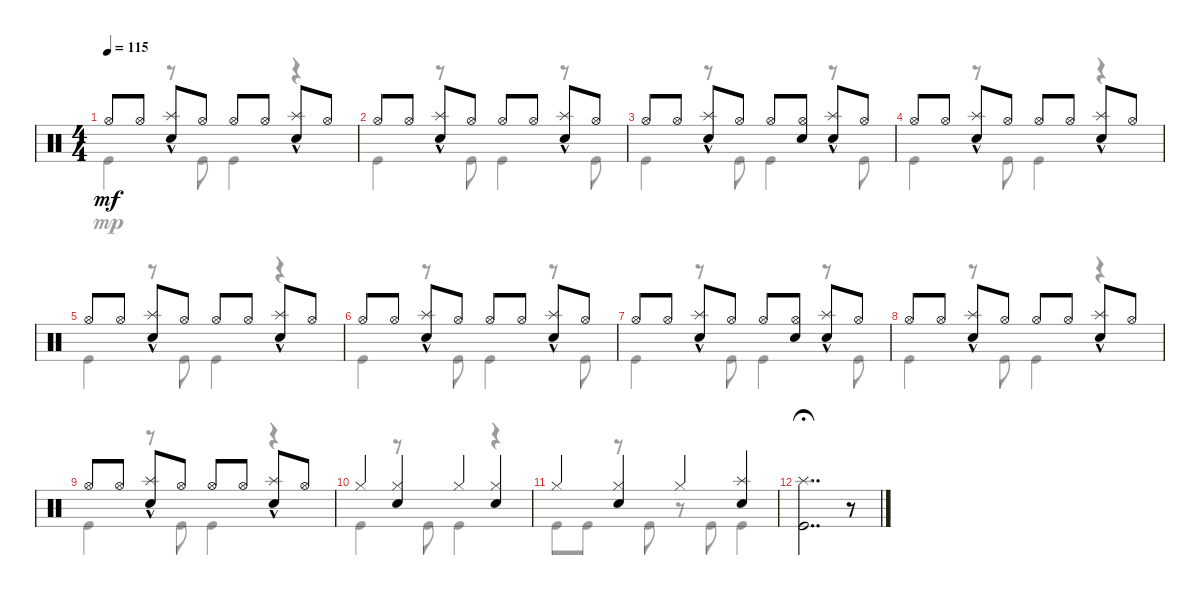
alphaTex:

\defaultSystemsLayout 4
\bracketExtendMode nobrackets
\singleTrackTrackNamePolicy hidden
\multiTrackTrackNamePolicy hidden
\firstSystemTrackNameOrientation horizontal
\otherSystemsTrackNameOrientation horizontal
\track ("Drums" "Drums") {instrument percussion}
\staff {score}
\articulation defaults
\voice
\ts (4 4)
\tempo 115
\clef neutral
\ks c "Hi-Hat (open)".8{dy mf} "Hi-Hat (open)".8
("Snare (hit) 2" "Splash (hit)"{hac}).8 "Hi-Hat (open)".8 "Hi-Hat (open)".8 "Hi-Hat (open)".8 ("Snare (hit) 2" "Splash (hit)"{hac}).8 "Hi-Hat (open)".8 |
"Hi-Hat (open)".8 "Hi-Hat (open)".8 ("Snare (hit) 2" "Splash (hit)"{hac}).8 "Hi-Hat (open)".8 "Hi-Hat (open)".8 "Hi-Hat (open)".8 ("Snare (hit) 2" "Splash (hit)"{hac}).8 "Hi-Hat (open)".8 |
"Hi-Hat (open)".8 "Hi-Hat (open)".8 ("Snare (hit) 2" "Splash (hit)"{hac}).8 "Hi-Hat (open)".8 "Hi-Hat (open)".8 ("Hi-Hat (open)" "Snare (hit) 2").8 ("Snare (hit) 2" "Splash (hit)"{hac}).8 "Hi-Hat (open)".8 |
"Hi-Hat (open)".8 "Hi-Hat (open)".8 ("Snare (hit) 2" "Splash (hit)"{hac}).8 "Hi-Hat (open)".8 "Hi-Hat (open)".8 "Hi-Hat (open)".8 ("Snare (hit) 2" "Splash (hit)"{hac}).8 "Hi-Hat (open)".8 |
"Hi-Hat (open)".8 "Hi-Hat (open)".8 ("Snare (hit) 2" "Splash (hit)"{hac}).8 "Hi-Hat (open)".8 "Hi-Hat (open)".8 "Hi-Hat (open)".8 ("Snare (hit) 2" "Splash (hit)"{hac}).8 "Hi-Hat (open)".8 |
"Hi-Hat (open)".8 "Hi-Hat (open)".8 ("Snare (hit) 2" "Splash (hit)"{hac}).8 "Hi-Hat (open)".8 "Hi-Hat (open)".8 "Hi-Hat (open)".8 ("Snare (hit) 2" "Splash (hit)"{hac}).8 "Hi-Hat (open)".8 |
"Hi-Hat (open)".8 "Hi-Hat (open)".8 ("Snare (hit) 2" "Splash (hit)"{hac}).8 "Hi-Hat (open)".8 "Hi-Hat (open)".8 ("Hi-Hat (open)" "Snare (hit) 2").8 ("Snare (hit) 2" "Splash (hit)"{hac}).8 "Hi-Hat (open)".8 |
"Hi-Hat (open)".8 "Hi-Hat (open)".8 ("Snare (hit) 2" "Splash (hit)"{hac}).8 "Hi-Hat (open)".8 "Hi-Hat (open)".8 "Hi-Hat (open)".8 ("Snare (hit) 2" "Splash (hit)"{hac}).8 "Hi-Hat (open)".8 |
"Hi-Hat (open)".8 "Hi-Hat (open)".8 ("Snare (hit) 2" "Splash (hit)"{hac}).8 "Hi-Hat (open)".8 "Hi-Hat (open)".8 "Hi-Hat (open)".8 ("Snare (hit) 2" "Splash (hit)"{hac}).8 "Hi-Hat (open)".8 |
"Hi-Hat (closed)".4 ("Hi-Hat (closed)" "Snare (hit) 2").4 "Hi-Hat (closed)".4 ("Hi-Hat (closed)" "Snare (hit) 2").4 |
"Hi-Hat (closed)".4 ("Hi-Hat (closed)" "Snare (hit) 2").4 "Hi-Hat (closed)".4 ("Snare (hit) 2" "Splash (hit)").4 |
("Kick (hit)" "Splash (hit)").2{dd fermata (medium 0.62)} r.8
\voice
\clef neutral
\ottava regular
\simile none
\ks c "Kick (hit)".4{dy mp}
r.8 "Kick (hit)".8 "Kick (hit)".4 r.4 |
"Kick (hit)".4 r.8 "Kick (hit)".8 "Kick (hit)".4 r.8 "Kick (hit)".8 |
"Kick (hit)".4 r.8 "Kick (hit)".8 "Kick (hit)".4 r.8 "Kick (hit)".8 |
"Kick (hit)".4 r.8 "Kick (hit)".8 "Kick (hit)".4 r.4 |
"Kick (hit)".4 r.8 "Kick (hit)".8 "Kick (hit)".4 r.4 |
"Kick (hit)".4 r.8 "Kick (hit)".8 "Kick (hit)".4 r.8 "Kick (hit)".8 |
"Kick (hit)".4 r.8 "Kick (hit)".8 "Kick (hit)".4 r.8 "Kick (hit)".8 |
"Kick (hit)".4 r.8 "Kick (hit)".8 "Kick (hit)".4 r.4 |
"Kick (hit)".4 r.8 "Kick (hit)".8 "Kick (hit)".4 r.4 |
"Kick (hit)".4 r.8 "Kick (hit)".8 "Kick (hit)".4 r.4 |
"Kick (hit)".8 "Kick (hit)".8 r.8 "Kick (hit)".8 r.8 "Kick (hit)".8 "Kick (hit)".4 |
